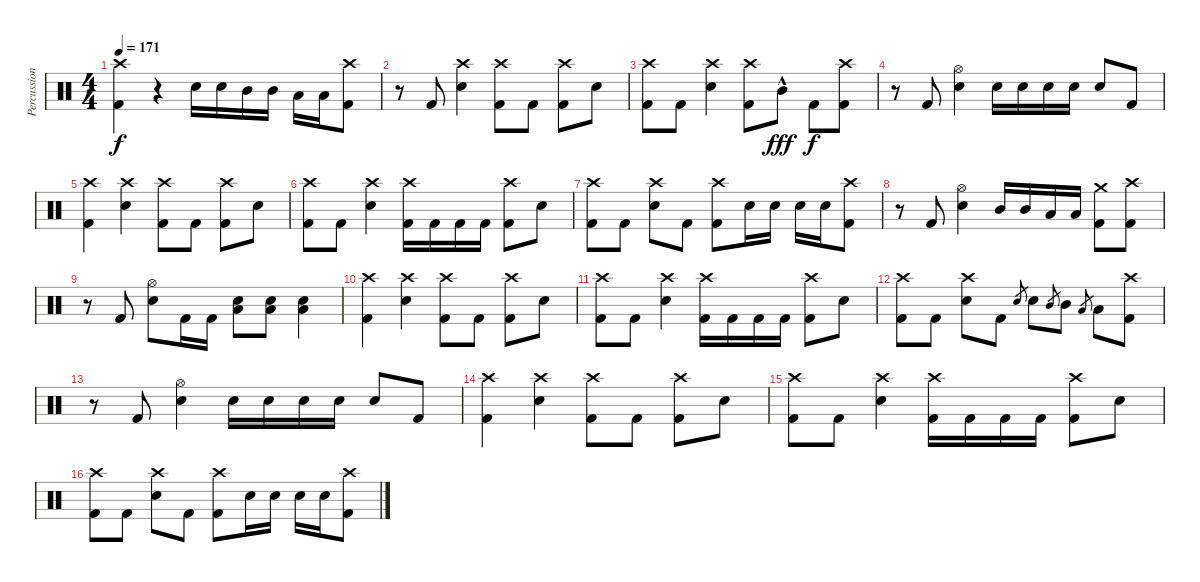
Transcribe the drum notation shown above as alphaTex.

\track ("Percussion" "Percussion") {instrument percussion}
\staff {score}
\articulation defaults
\ts (4 4)
\tempo 171
\clef neutral
\ks c
("Crash high (hit)" "Kick (hit) 2").4{dy f} r.4 "Electric Snare (hit)".16 "Electric Snare (hit)".16 "Mid Tom (hit)".16 "Mid Tom (hit)".16 "Low Tom (hit)".16 "Low Tom (hit)".16 ("Crash high (hit)" "Kick (hit) 2").8 |
r.8 "Kick (hit) 2".8 ("Crash high (hit)" "Electric Snare (hit)").4 ("Crash high (hit)" "Kick (hit) 2").8 "Kick (hit) 2".8 ("Crash high (hit)" "Kick (hit) 2").8 "Electric Snare (hit)".8 |
("Crash high (hit)" "Kick (hit) 2").8 "Kick (hit) 2".8 ("Crash high (hit)" "Electric Snare (hit)").4 ("Crash high (hit)" "Kick (hit) 2").8 "Mid Tom (hit)"{hac}.8{dy fff} "Kick (hit) 2".8{dy f} ("Crash high (hit)" "Kick (hit) 2").8 |
r.8 "Kick (hit) 2".8 ("Hi-Hat (open)" "Electric Snare (hit)").4 "Electric Snare (hit)".16 "Electric Snare (hit)".16 "Electric Snare (hit)".16 "Electric Snare (hit)".16 "Electric Snare (hit)".8 "Kick (hit) 2".8 |
("Crash high (hit)" "Kick (hit) 2").4 ("Crash high (hit)" "Electric Snare (hit)").4 ("Crash high (hit)" "Kick (hit) 2").8 "Kick (hit) 2".8 ("Crash high (hit)" "Kick (hit) 2").8 "Electric Snare (hit)".8 |
("Crash high (hit)" "Kick (hit) 2").8 "Kick (hit) 2".8 ("Crash high (hit)" "Electric Snare (hit)").4 ("Crash high (hit)" "Kick (hit) 2").16 "Kick (hit) 2".16 "Kick (hit) 2".16 "Kick (hit) 2".16 ("Crash high (hit)" "Kick (hit) 2").8 "Electric Snare (hit)".8 |
("Crash high (hit)" "Kick (hit) 2").8 "Kick (hit) 2".8 ("Crash high (hit)" "Electric Snare (hit)").8 "Kick (hit) 2".8 ("Crash high (hit)" "Kick (hit) 2").8 "Electric Snare (hit)".16 "Electric Snare (hit)".16 "Electric Snare (hit)".16 "Electric Snare (hit)".16 ("Crash high (hit)" "Kick (hit) 2").8 |
r.8 "Kick (hit) 2".8 ("Hi-Hat (open)" "Electric Snare (hit)").4 "Mid Tom (hit)".16 "Mid Tom (hit)".16 "Low Tom (hit)".16 "Low Tom (hit)".16 ("Crash medium (hit)" "Kick (hit) 2").8 ("Crash high (hit)" "Kick (hit) 2").8 |
r.8 "Kick (hit) 2".8 ("Hi-Hat (open)" "Electric Snare (hit)").8 "Kick (hit) 2".16 "Kick (hit) 2".16 ("Electric Snare (hit)" "Low Tom (hit)").8 ("Electric Snare (hit)" "Low Tom (hit)").8 ("Electric Snare (hit)" "Low Tom (hit)").4 |
("Crash high (hit)" "Kick (hit) 2").4 ("Crash high (hit)" "Electric Snare (hit)").4 ("Crash high (hit)" "Kick (hit) 2").8 "Kick (hit) 2".8 ("Crash high (hit)" "Kick (hit) 2").8 "Electric Snare (hit)".8 |
("Crash high (hit)" "Kick (hit) 2").8 "Kick (hit) 2".8 ("Crash high (hit)" "Electric Snare (hit)").4 ("Crash high (hit)" "Kick (hit) 2").16 "Kick (hit) 2".16 "Kick (hit) 2".16 "Kick (hit) 2".16 ("Crash high (hit)" "Kick (hit) 2").8 "Electric Snare (hit)".8 |
("Crash high (hit)" "Kick (hit) 2").8 "Kick (hit) 2".8 ("Crash high (hit)" "Electric Snare (hit)").8 "Kick (hit) 2".8 "Electric Snare (hit)".8{gr} "Electric Snare (hit)".8 "Mid Tom (hit)".8{gr} "Mid Tom (hit)".8 "Low Tom (hit)".8{gr} "Low Tom (hit)".8 ("Crash high (hit)" "Kick (hit) 2").8 |
r.8 "Kick (hit) 2".8 ("Hi-Hat (open)" "Electric Snare (hit)").4 "Electric Snare (hit)".16 "Electric Snare (hit)".16 "Electric Snare (hit)".16 "Electric Snare (hit)".16 "Electric Snare (hit)".8 "Kick (hit) 2".8 |
("Crash high (hit)" "Kick (hit) 2").4 ("Crash high (hit)" "Electric Snare (hit)").4 ("Crash high (hit)" "Kick (hit) 2").8 "Kick (hit) 2".8 ("Crash high (hit)" "Kick (hit) 2").8 "Electric Snare (hit)".8 |
("Crash high (hit)" "Kick (hit) 2").8 "Kick (hit) 2".8 ("Crash high (hit)" "Electric Snare (hit)").4 ("Crash high (hit)" "Kick (hit) 2").16 "Kick (hit) 2".16 "Kick (hit) 2".16 "Kick (hit) 2".16 ("Crash high (hit)" "Kick (hit) 2").8 "Electric Snare (hit)".8 |
("Crash high (hit)" "Kick (hit) 2").8 "Kick (hit) 2".8 ("Crash high (hit)" "Electric Snare (hit)").8 "Kick (hit) 2".8 ("Crash high (hit)" "Kick (hit) 2").8 "Electric Snare (hit)".16 "Electric Snare (hit)".16 "Electric Snare (hit)".16 "Electric Snare (hit)".16 ("Crash high (hit)" "Kick (hit) 2").8
